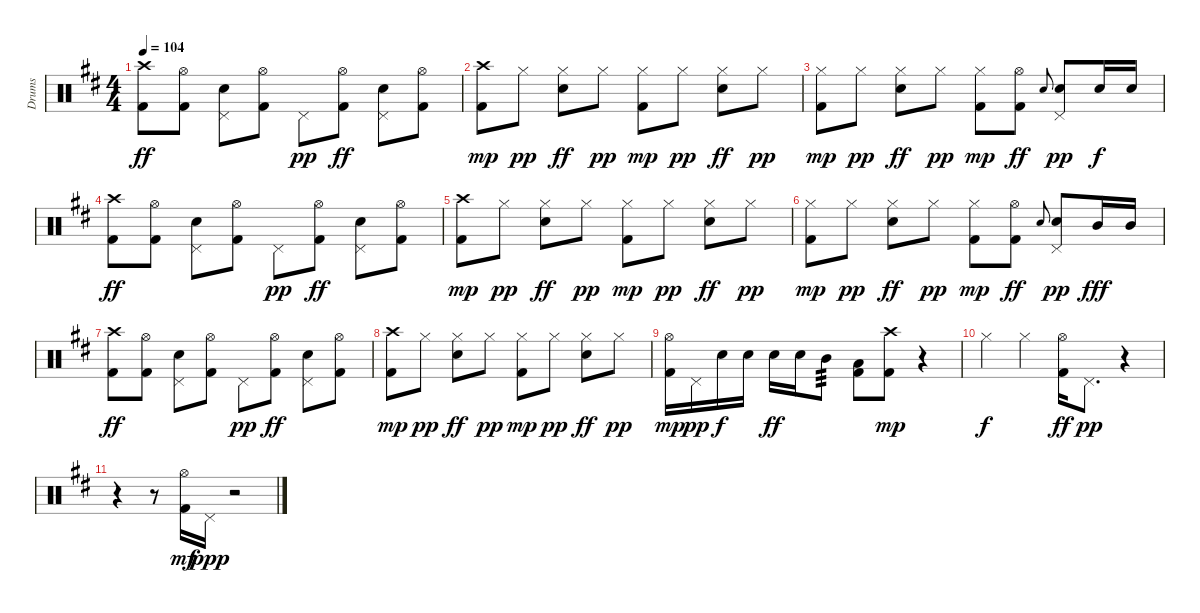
\track ("Drums" "Drums") {instrument percussion}
\staff {score}
\articulation defaults
\ts (4 4)
\tempo 104
\clef neutral
\ks bminor
("Crash high (hit)" "Kick (hit) 2").8{dy ff} ("Hi-Hat (open)" "Kick (hit) 2").8 ("Pedal Hi-Hat (hit)" "Electric Snare (hit)").8 ("Hi-Hat (open)" "Kick (hit) 2").8 "Pedal Hi-Hat (hit)".8{dy pp} ("Hi-Hat (open)" "Kick (hit) 2").8{dy ff} ("Pedal Hi-Hat (hit)" "Electric Snare (hit)").8 ("Hi-Hat (open)" "Kick (hit) 2").8 |
("Crash high (hit)" "Kick (hit) 2").8{dy mp} "Hi-Hat (closed)".8{dy pp} ("Hi-Hat (closed)" "Electric Snare (hit)").8{dy ff} "Hi-Hat (closed)".8{dy pp} ("Hi-Hat (closed)" "Kick (hit) 2").8{dy mp} "Hi-Hat (closed)".8{dy pp} ("Hi-Hat (closed)" "Electric Snare (hit)").8{dy ff} "Hi-Hat (closed)".8{dy pp} |
("Hi-Hat (closed)" "Kick (hit) 2").8{dy mp} "Hi-Hat (closed)".8{dy pp} ("Hi-Hat (closed)" "Electric Snare (hit)").8{dy ff} "Hi-Hat (closed)".8{dy pp} ("Hi-Hat (closed)" "Kick (hit) 2").8{dy mp} ("Hi-Hat (open)" "Kick (hit) 2").8{dy ff} "Electric Snare (hit)".8{gr onbeat} ("Electric Snare (hit)" "Pedal Hi-Hat (hit)").8{dy pp} "Electric Snare (hit)".16{dy f} "Electric Snare (hit)".16 |
("Crash high (hit)" "Kick (hit) 2").8{dy ff} ("Hi-Hat (open)" "Kick (hit) 2").8 ("Pedal Hi-Hat (hit)" "Electric Snare (hit)").8 ("Hi-Hat (open)" "Kick (hit) 2").8 "Pedal Hi-Hat (hit)".8{dy pp} ("Hi-Hat (open)" "Kick (hit) 2").8{dy ff} ("Pedal Hi-Hat (hit)" "Electric Snare (hit)").8 ("Hi-Hat (open)" "Kick (hit) 2").8 |
("Crash high (hit)" "Kick (hit) 2").8{dy mp} "Hi-Hat (closed)".8{dy pp} ("Hi-Hat (closed)" "Electric Snare (hit)").8{dy ff} "Hi-Hat (closed)".8{dy pp} ("Hi-Hat (closed)" "Kick (hit) 2").8{dy mp} "Hi-Hat (closed)".8{dy pp} ("Hi-Hat (closed)" "Electric Snare (hit)").8{dy ff} "Hi-Hat (closed)".8{dy pp} |
("Hi-Hat (closed)" "Kick (hit) 2").8{dy mp} "Hi-Hat (closed)".8{dy pp} ("Hi-Hat (closed)" "Electric Snare (hit)").8{dy ff} "Hi-Hat (closed)".8{dy pp} ("Hi-Hat (closed)" "Kick (hit) 2").8{dy mp} ("Hi-Hat (open)" "Kick (hit) 2").8{dy ff} "Electric Snare (hit)".8{gr onbeat} ("Electric Snare (hit)" "Pedal Hi-Hat (hit)").8{dy pp} "Mid Tom (hit)".16{dy fff} "Mid Tom (hit)".16 |
("Crash high (hit)" "Kick (hit) 2").8{dy ff} ("Hi-Hat (open)" "Kick (hit) 2").8 ("Pedal Hi-Hat (hit)" "Electric Snare (hit)").8 ("Hi-Hat (open)" "Kick (hit) 2").8 "Pedal Hi-Hat (hit)".8{dy pp} ("Hi-Hat (open)" "Kick (hit) 2").8{dy ff} ("Pedal Hi-Hat (hit)" "Electric Snare (hit)").8 ("Hi-Hat (open)" "Kick (hit) 2").8 |
("Crash high (hit)" "Kick (hit) 2").8{dy mp} "Hi-Hat (closed)".8{dy pp} ("Hi-Hat (closed)" "Electric Snare (hit)").8{dy ff} "Hi-Hat (closed)".8{dy pp} ("Hi-Hat (closed)" "Kick (hit) 2").8{dy mp} "Hi-Hat (closed)".8{dy pp} ("Hi-Hat (closed)" "Electric Snare (hit)").8{dy ff} "Hi-Hat (closed)".8{dy pp} |
("Kick (hit) 2" "Hi-Hat (open)").16{dy mp} "Pedal Hi-Hat (hit)".16{dy pp} "Electric Snare (hit)".16{dy f} "Electric Snare (hit)".16 "Electric Snare (hit)".16{dy ff} "Electric Snare (hit)".16 "Mid Tom (hit)".8{tp 3} ("Low Tom (hit)" "Kick (hit) 2").8 ("Kick (hit) 2" "Crash high (hit)").8{dy mp} r.4 |
"Hi-Hat (closed)".4{dy f} "Hi-Hat (closed)".4 ("Hi-Hat (open)" "Kick (hit) 2").16{dy ff} "Pedal Hi-Hat (hit)".8{d dy pp} r.4 |
r.4 r.8 ("Kick (hit) 2" "Hi-Hat (open)").16{dy mf} "Pedal Hi-Hat (hit)".16{dy ppp} r.2
